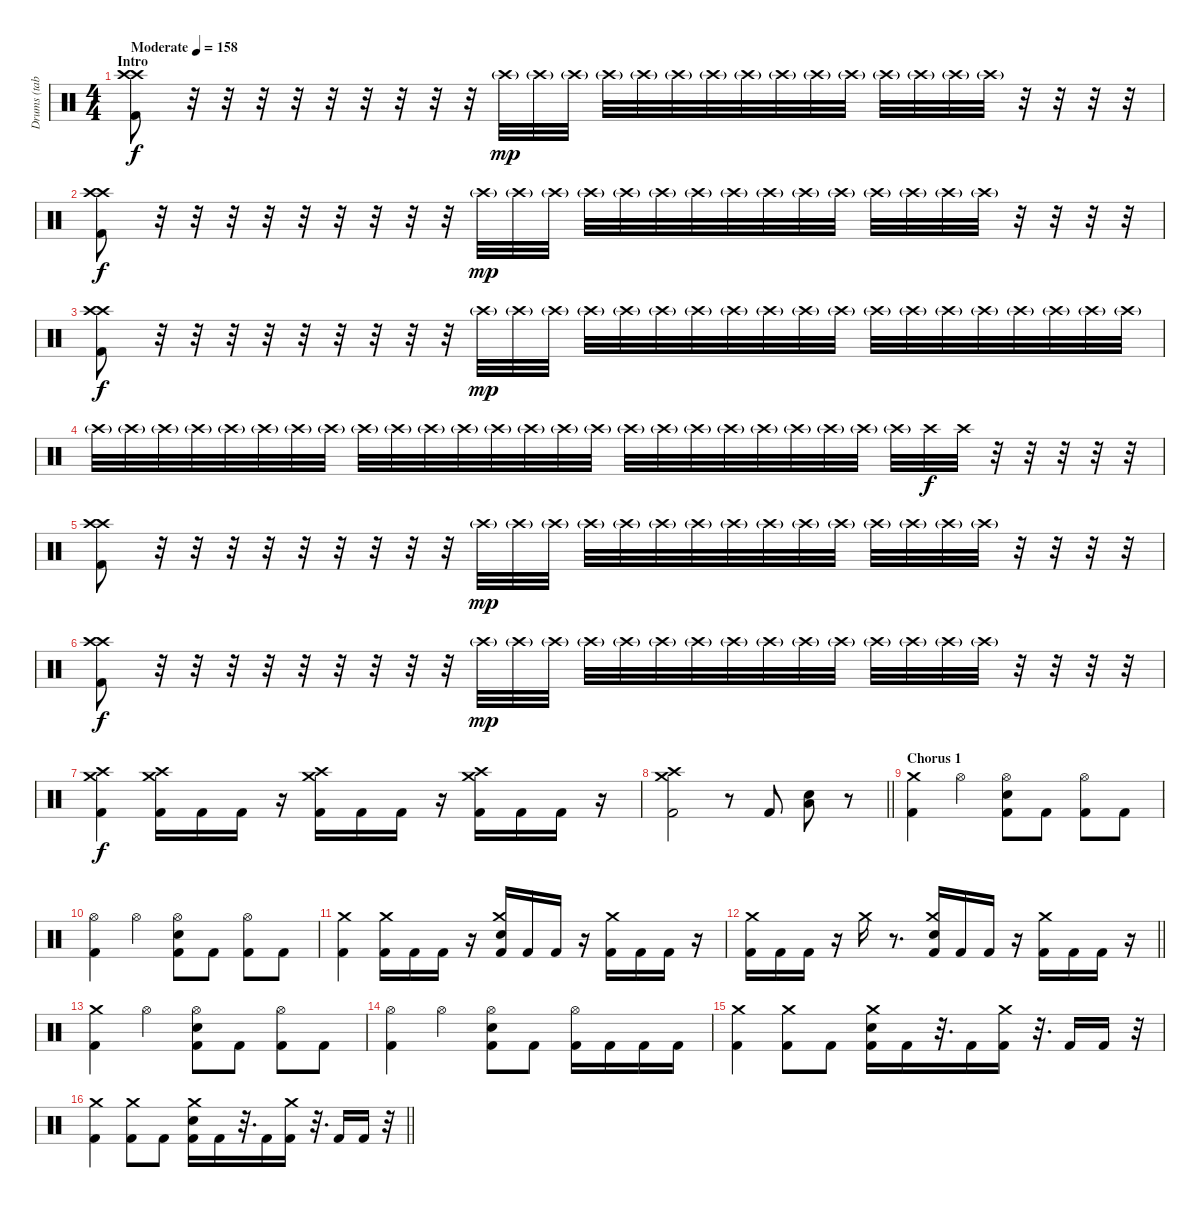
\track ("Drums (tabbed by bassman213293)" "Drums (tab") {instrument percussion}
\staff {score}
\articulation defaults
\ts (4 4)
\section ("" "Intro")
\tempo (158 "Moderate")
\clef neutral
\ks c
("Crash high (hit)" "Crash high (hit)" "Kick (hit) 2").8{dy f} r.32 r.32 r.32 r.32 r.32 r.32 r.32 r.32 r.32 "Crash high (hit)"{g}.32{dy mp} "Crash high (hit)"{g}.32 "Crash high (hit)"{g}.32 "Crash high (hit)"{g}.32 "Crash high (hit)"{g}.32 "Crash high (hit)"{g}.32 "Crash high (hit)"{g}.32 "Crash high (hit)"{g}.32 "Crash high (hit)"{g}.32 "Crash high (hit)"{g}.32 "Crash high (hit)"{g}.32 "Crash high (hit)"{g}.32 "Crash high (hit)"{g}.32 "Crash high (hit)"{g}.32 "Crash high (hit)"{g}.32 r.32 r.32 r.32 r.32 |
("Crash high (hit)" "Crash high (hit)" "Kick (hit) 2").8{dy f} r.32 r.32 r.32 r.32 r.32 r.32 r.32 r.32 r.32 "Crash high (hit)"{g}.32{dy mp} "Crash high (hit)"{g}.32 "Crash high (hit)"{g}.32 "Crash high (hit)"{g}.32 "Crash high (hit)"{g}.32 "Crash high (hit)"{g}.32 "Crash high (hit)"{g}.32 "Crash high (hit)"{g}.32 "Crash high (hit)"{g}.32 "Crash high (hit)"{g}.32 "Crash high (hit)"{g}.32 "Crash high (hit)"{g}.32 "Crash high (hit)"{g}.32 "Crash high (hit)"{g}.32 "Crash high (hit)"{g}.32 r.32 r.32 r.32 r.32 |
("Crash high (hit)" "Crash high (hit)" "Kick (hit) 2").8{dy f} r.32 r.32 r.32 r.32 r.32 r.32 r.32 r.32 r.32 "Crash high (hit)"{g}.32{dy mp} "Crash high (hit)"{g}.32 "Crash high (hit)"{g}.32 "Crash high (hit)"{g}.32 "Crash high (hit)"{g}.32 "Crash high (hit)"{g}.32 "Crash high (hit)"{g}.32 "Crash high (hit)"{g}.32 "Crash high (hit)"{g}.32 "Crash high (hit)"{g}.32 "Crash high (hit)"{g}.32 "Crash high (hit)"{g}.32 "Crash high (hit)"{g}.32 "Crash high (hit)"{g}.32 "Crash high (hit)"{g}.32 "Crash high (hit)"{g}.32 "Crash high (hit)"{g}.32 "Crash high (hit)"{g}.32 "Crash high (hit)"{g}.32 |
"Crash high (hit)"{g}.32 "Crash high (hit)"{g}.32 "Crash high (hit)"{g}.32 "Crash high (hit)"{g}.32 "Crash high (hit)"{g}.32 "Crash high (hit)"{g}.32 "Crash high (hit)"{g}.32 "Crash high (hit)"{g}.32 "Crash high (hit)"{g}.32 "Crash high (hit)"{g}.32 "Crash high (hit)"{g}.32 "Crash high (hit)"{g}.32 "Crash high (hit)"{g}.32 "Crash high (hit)"{g}.32 "Crash high (hit)"{g}.32 "Crash high (hit)"{g}.32 "Crash high (hit)"{g}.32 "Crash high (hit)"{g}.32 "Crash high (hit)"{g}.32 "Crash high (hit)"{g}.32 "Crash high (hit)"{g}.32 "Crash high (hit)"{g}.32 "Crash high (hit)"{g}.32 "Crash high (hit)"{g}.32 "Crash high (hit)"{g}.32 "Crash high (hit)".32{dy f} "Crash high (hit)".32 r.32 r.32 r.32 r.32 r.32 |
("Crash high (hit)" "Crash high (hit)" "Kick (hit) 2").8 r.32 r.32 r.32 r.32 r.32 r.32 r.32 r.32 r.32 "Crash high (hit)"{g}.32{dy mp} "Crash high (hit)"{g}.32 "Crash high (hit)"{g}.32 "Crash high (hit)"{g}.32 "Crash high (hit)"{g}.32 "Crash high (hit)"{g}.32 "Crash high (hit)"{g}.32 "Crash high (hit)"{g}.32 "Crash high (hit)"{g}.32 "Crash high (hit)"{g}.32 "Crash high (hit)"{g}.32 "Crash high (hit)"{g}.32 "Crash high (hit)"{g}.32 "Crash high (hit)"{g}.32 "Crash high (hit)"{g}.32 r.32 r.32 r.32 r.32 |
("Crash high (hit)" "Crash high (hit)" "Kick (hit) 2").8{dy f} r.32 r.32 r.32 r.32 r.32 r.32 r.32 r.32 r.32 "Crash high (hit)"{g}.32{dy mp} "Crash high (hit)"{g}.32 "Crash high (hit)"{g}.32 "Crash high (hit)"{g}.32 "Crash high (hit)"{g}.32 "Crash high (hit)"{g}.32 "Crash high (hit)"{g}.32 "Crash high (hit)"{g}.32 "Crash high (hit)"{g}.32 "Crash high (hit)"{g}.32 "Crash high (hit)"{g}.32 "Crash high (hit)"{g}.32 "Crash high (hit)"{g}.32 "Crash high (hit)"{g}.32 "Crash high (hit)"{g}.32 r.32 r.32 r.32 r.32 |
("Crash high (hit)" "Crash medium (hit)" "Kick (hit) 2").4{dy f} ("Crash high (hit)" "Crash medium (hit)" "Kick (hit) 2").16 "Kick (hit) 2".16 "Kick (hit) 2".16 r.16 ("Crash high (hit)" "Crash medium (hit)" "Kick (hit) 2").16 "Kick (hit) 2".16 "Kick (hit) 2".16 r.16 ("Crash high (hit)" "Crash medium (hit)" "Kick (hit) 2").16 "Kick (hit) 2".16 "Kick (hit) 2".16 r.16 |
\barLineRight lightlight
("Crash high (hit)" "Crash medium (hit)" "Kick (hit) 2").2 r.8 "Kick (hit) 2".8 ("Electric Snare (hit)" "Low Tom (hit)").8 r.8 |
\section ("" "Chorus 1")
("Crash medium (hit)" "Kick (hit) 2").4 "Hi-Hat (open)".4 ("Hi-Hat (open)" "Electric Snare (hit)" "Kick (hit) 2").8 "Kick (hit) 2".8 ("Hi-Hat (open)" "Kick (hit) 2").8 "Kick (hit) 2".8 |
("Hi-Hat (open)" "Kick (hit) 2").4 "Hi-Hat (open)".4 ("Hi-Hat (open)" "Electric Snare (hit)" "Kick (hit) 2").8 "Kick (hit) 2".8 ("Hi-Hat (open)" "Kick (hit) 2").8 "Kick (hit) 2".8 |
("Crash medium (hit)" "Kick (hit) 2").4 ("Crash medium (hit)" "Kick (hit) 2").16 "Kick (hit) 2".16 "Kick (hit) 2".16 r.16 ("Crash medium (hit)" "Electric Snare (hit)" "Kick (hit) 2").16 "Kick (hit) 2".16 "Kick (hit) 2".16 r.16 ("Crash medium (hit)" "Kick (hit) 2").16 "Kick (hit) 2".16 "Kick (hit) 2".16 r.16 |
\barLineRight lightlight
("Crash medium (hit)" "Kick (hit) 2").16 "Kick (hit) 2".16 "Kick (hit) 2".16 r.16 "Crash medium (hit)".16 r.8{d} ("Crash medium (hit)" "Electric Snare (hit)" "Kick (hit) 2").16 "Kick (hit) 2".16 "Kick (hit) 2".16 r.16 ("Crash medium (hit)" "Kick (hit) 2").16 "Kick (hit) 2".16 "Kick (hit) 2".16 r.16 |
("Crash medium (hit)" "Kick (hit) 2").4 "Hi-Hat (open)".4 ("Hi-Hat (open)" "Electric Snare (hit)" "Kick (hit) 2").8 "Kick (hit) 2".8 ("Hi-Hat (open)" "Kick (hit) 2").8 "Kick (hit) 2".8 |
("Hi-Hat (open)" "Kick (hit) 2").4 "Hi-Hat (open)".4 ("Hi-Hat (open)" "Electric Snare (hit)" "Kick (hit) 2").8 "Kick (hit) 2".8 ("Hi-Hat (open)" "Kick (hit) 2").16 "Kick (hit) 2".16 "Kick (hit) 2".16 "Kick (hit) 2".16 |
("Crash medium (hit)" "Kick (hit) 2").4 ("Crash medium (hit)" "Kick (hit) 2").8 "Kick (hit) 2".8 ("Crash medium (hit)" "Electric Snare (hit)" "Kick (hit) 2").16 "Kick (hit) 2".16 r.32{d} "Kick (hit) 2".16 ("Crash medium (hit)" "Kick (hit) 2").16 r.32{d} "Kick (hit) 2".16 "Kick (hit) 2".16 r.32 |
\barLineRight lightlight
("Crash medium (hit)" "Kick (hit) 2").4 ("Crash medium (hit)" "Kick (hit) 2").8 "Kick (hit) 2".8 ("Crash medium (hit)" "Electric Snare (hit)" "Kick (hit) 2").16 "Kick (hit) 2".16 r.32{d} "Kick (hit) 2".16 ("Crash medium (hit)" "Kick (hit) 2").16 r.32{d} "Kick (hit) 2".16 "Kick (hit) 2".16 r.32
